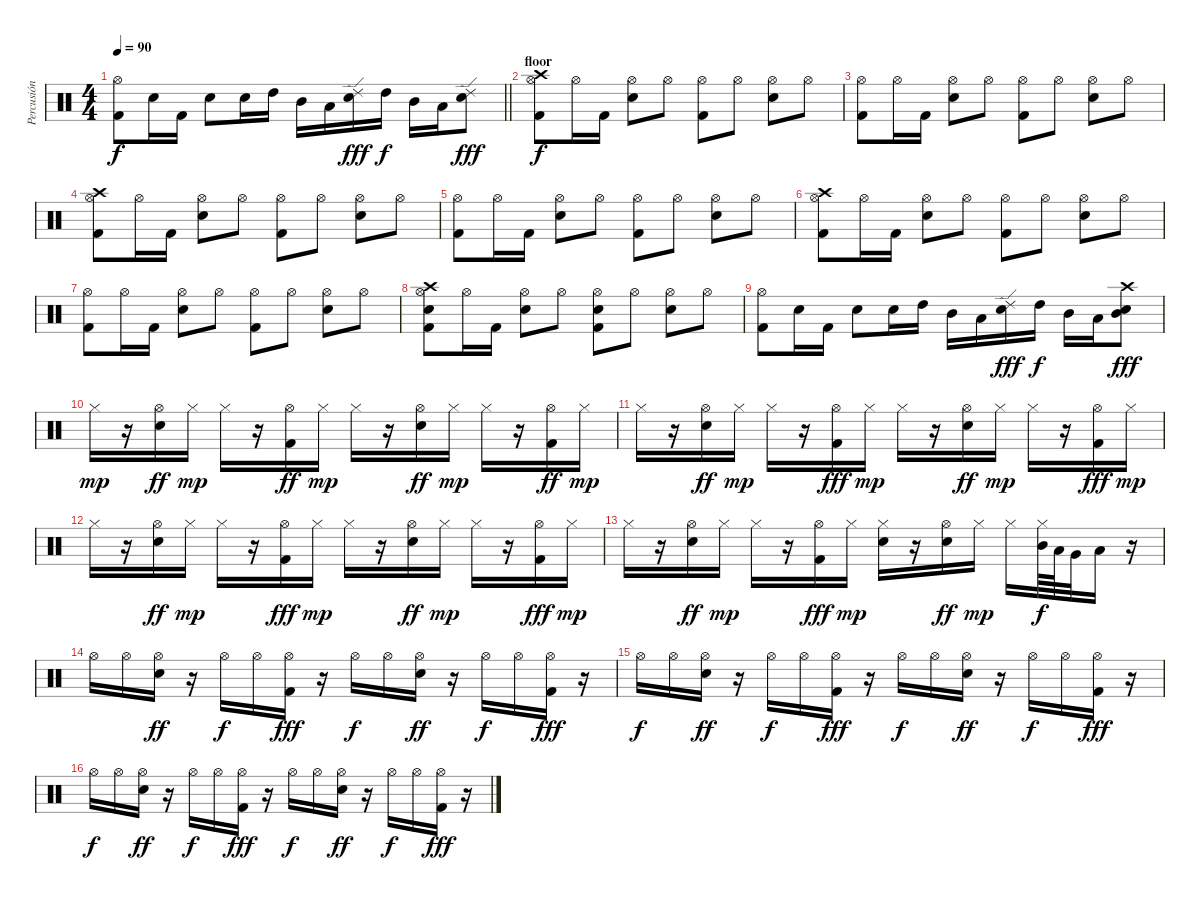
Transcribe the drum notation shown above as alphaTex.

\track ("Percusión" "Percusión") {instrument percussion}
\staff {score}
\articulation defaults
\ts (4 4)
\tempo 90
\clef neutral
\barLineRight lightlight
\ks c
("Hi-Hat (open)" "Kick (hit) 2").8{dy f} "Electric Snare (hit)".16 "Kick (hit) 2".16 "Electric Snare (hit)".8 "Electric Snare (hit)".16 "High Tom (hit)".16 "Mid Tom (hit)".16 "Low Tom (hit)".16 ("Ride (edge) 2" "Electric Snare (hit)").16{dy fff} "High Tom (hit)".16{dy f} "Mid Tom (hit)".16 "Low Tom (hit)".16 ("Ride (edge) 2" "Electric Snare (hit)").8{dy fff} |
\section ("" "floor")
("Crash high (hit)" "Hi-Hat (open)" "Kick (hit) 2").8{dy f} "Hi-Hat (open)".16 "Kick (hit) 2".16 ("Hi-Hat (open)" "Electric Snare (hit)").8 "Hi-Hat (open)".8 ("Hi-Hat (open)" "Kick (hit) 2").8 "Hi-Hat (open)".8 ("Hi-Hat (open)" "Electric Snare (hit)").8 "Hi-Hat (open)".8 |
("Hi-Hat (open)" "Kick (hit) 2").8 "Hi-Hat (open)".16 "Kick (hit) 2".16 ("Hi-Hat (open)" "Electric Snare (hit)").8 "Hi-Hat (open)".8 ("Hi-Hat (open)" "Kick (hit) 2").8 "Hi-Hat (open)".8 ("Hi-Hat (open)" "Electric Snare (hit)").8 "Hi-Hat (open)".8 |
("Crash high (hit)" "Hi-Hat (open)" "Kick (hit) 2").8 "Hi-Hat (open)".16 "Kick (hit) 2".16 ("Hi-Hat (open)" "Electric Snare (hit)").8 "Hi-Hat (open)".8 ("Hi-Hat (open)" "Kick (hit) 2").8 "Hi-Hat (open)".8 ("Hi-Hat (open)" "Electric Snare (hit)").8 "Hi-Hat (open)".8 |
("Hi-Hat (open)" "Kick (hit) 2").8 "Hi-Hat (open)".16 "Kick (hit) 2".16 ("Hi-Hat (open)" "Electric Snare (hit)").8 "Hi-Hat (open)".8 ("Hi-Hat (open)" "Kick (hit) 2").8 "Hi-Hat (open)".8 ("Hi-Hat (open)" "Electric Snare (hit)").8 "Hi-Hat (open)".8 |
("Crash high (hit)" "Hi-Hat (open)" "Kick (hit) 2").8 "Hi-Hat (open)".16 "Kick (hit) 2".16 ("Hi-Hat (open)" "Electric Snare (hit)").8 "Hi-Hat (open)".8 ("Hi-Hat (open)" "Kick (hit) 2").8 "Hi-Hat (open)".8 ("Hi-Hat (open)" "Electric Snare (hit)").8 "Hi-Hat (open)".8 |
("Hi-Hat (open)" "Kick (hit) 2").8 "Hi-Hat (open)".16 "Kick (hit) 2".16 ("Hi-Hat (open)" "Electric Snare (hit)").8 "Hi-Hat (open)".8 ("Hi-Hat (open)" "Kick (hit) 2").8 "Hi-Hat (open)".8 ("Hi-Hat (open)" "Electric Snare (hit)").8 "Hi-Hat (open)".8 |
("Crash high (hit)" "Hi-Hat (open)" "Electric Snare (hit)" "Kick (hit) 2").8 "Hi-Hat (open)".16 "Kick (hit) 2".16 ("Hi-Hat (open)" "Electric Snare (hit)").8 "Hi-Hat (open)".8 ("Hi-Hat (open)" "Electric Snare (hit)" "Kick (hit) 2").8 "Hi-Hat (open)".8 ("Hi-Hat (open)" "Electric Snare (hit)").8 "Hi-Hat (open)".8 |
("Hi-Hat (open)" "Kick (hit) 2").8 "Electric Snare (hit)".16 "Kick (hit) 2".16 "Electric Snare (hit)".8 "Electric Snare (hit)".16 "High Tom (hit)".16 "Mid Tom (hit)".16 "Low Tom (hit)".16 ("Ride (edge) 2" "Electric Snare (hit)").16{dy fff} "High Tom (hit)".16{dy f} "Mid Tom (hit)".16 "Low Tom (hit)".16 ("Crash high (hit)" "Mid Tom (hit)" "Electric Snare (hit)").8{dy fff} |
"Hi-Hat (closed)".16{dy mp} r.16 ("Hi-Hat (open)" "Electric Snare (hit)").16{dy ff} "Hi-Hat (closed)".16{dy mp} "Hi-Hat (closed)".16 r.16 ("Hi-Hat (open)" "Kick (hit) 2").16{dy ff} "Hi-Hat (closed)".16{dy mp} "Hi-Hat (closed)".16 r.16 ("Hi-Hat (open)" "Electric Snare (hit)").16{dy ff} "Hi-Hat (closed)".16{dy mp} "Hi-Hat (closed)".16 r.16 ("Hi-Hat (open)" "Kick (hit) 2").16{dy ff} "Hi-Hat (closed)".16{dy mp} |
"Hi-Hat (closed)".16 r.16 ("Hi-Hat (open)" "Electric Snare (hit)").16{dy ff} "Hi-Hat (closed)".16{dy mp} "Hi-Hat (closed)".16 r.16 ("Hi-Hat (open)" "Kick (hit) 2").16{dy fff} "Hi-Hat (closed)".16{dy mp} "Hi-Hat (closed)".16 r.16 ("Hi-Hat (open)" "Electric Snare (hit)").16{dy ff} "Hi-Hat (closed)".16{dy mp} "Hi-Hat (closed)".16 r.16 ("Hi-Hat (open)" "Kick (hit) 2").16{dy fff} "Hi-Hat (closed)".16{dy mp} |
"Hi-Hat (closed)".16 r.16 ("Hi-Hat (open)" "Electric Snare (hit)").16{dy ff} "Hi-Hat (closed)".16{dy mp} "Hi-Hat (closed)".16 r.16 ("Hi-Hat (open)" "Kick (hit) 2").16{dy fff} "Hi-Hat (closed)".16{dy mp} "Hi-Hat (closed)".16 r.16 ("Hi-Hat (open)" "Electric Snare (hit)").16{dy ff} "Hi-Hat (closed)".16{dy mp} "Hi-Hat (closed)".16 r.16 ("Hi-Hat (open)" "Kick (hit) 2").16{dy fff} "Hi-Hat (closed)".16{dy mp} |
"Hi-Hat (closed)".16 r.16 ("Hi-Hat (open)" "Electric Snare (hit)").16{dy ff} "Hi-Hat (closed)".16{dy mp} "Hi-Hat (closed)".16 r.16 ("Hi-Hat (open)" "Kick (hit) 2").16{dy fff} "Hi-Hat (closed)".16{dy mp} ("Hi-Hat (closed)" "Electric Snare (hit)").16 r.16 ("Hi-Hat (open)" "Electric Snare (hit)").16{dy ff} "Hi-Hat (closed)".16{dy mp} "Hi-Hat (closed)".16 ("Hi-Hat (closed)" "Mid Tom (hit)").64{dy f} "Low Tom (hit)".64 "Very Low Tom (hit)".32 "Low Floor Tom (hit)".16 r.16 |
"Hi-Hat (open)".16 "Hi-Hat (open)".16 ("Hi-Hat (open)" "Electric Snare (hit)").16{dy ff} r.16 "Hi-Hat (open)".16{dy f} "Hi-Hat (open)".16 ("Hi-Hat (open)" "Kick (hit) 2").16{dy fff} r.16 "Hi-Hat (open)".16{dy f} "Hi-Hat (open)".16 ("Hi-Hat (open)" "Electric Snare (hit)").16{dy ff} r.16 "Hi-Hat (open)".16{dy f} "Hi-Hat (open)".16 ("Hi-Hat (open)" "Kick (hit) 2").16{dy fff} r.16 |
"Hi-Hat (open)".16{dy f} "Hi-Hat (open)".16 ("Hi-Hat (open)" "Electric Snare (hit)").16{dy ff} r.16 "Hi-Hat (open)".16{dy f} "Hi-Hat (open)".16 ("Hi-Hat (open)" "Kick (hit) 2").16{dy fff} r.16 "Hi-Hat (open)".16{dy f} "Hi-Hat (open)".16 ("Hi-Hat (open)" "Electric Snare (hit)").16{dy ff} r.16 "Hi-Hat (open)".16{dy f} "Hi-Hat (open)".16 ("Hi-Hat (open)" "Kick (hit) 2").16{dy fff} r.16 |
"Hi-Hat (open)".16{dy f} "Hi-Hat (open)".16 ("Hi-Hat (open)" "Electric Snare (hit)").16{dy ff} r.16 "Hi-Hat (open)".16{dy f} "Hi-Hat (open)".16 ("Hi-Hat (open)" "Kick (hit) 2").16{dy fff} r.16 "Hi-Hat (open)".16{dy f} "Hi-Hat (open)".16 ("Hi-Hat (open)" "Electric Snare (hit)").16{dy ff} r.16 "Hi-Hat (open)".16{dy f} "Hi-Hat (open)".16 ("Hi-Hat (open)" "Kick (hit) 2").16{dy fff} r.16
